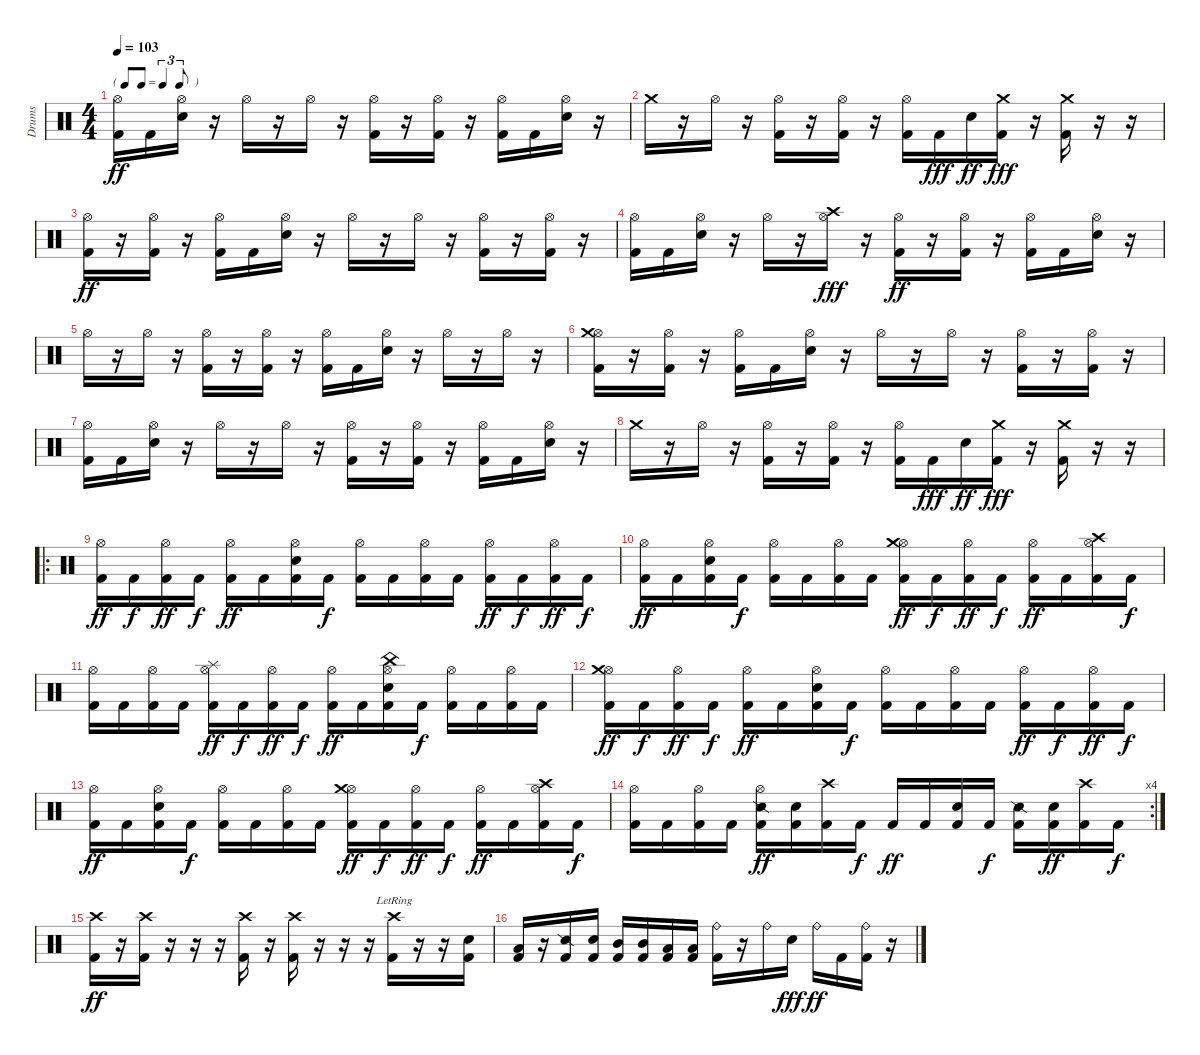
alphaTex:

\track ("Drums" "Drums") {instrument percussion}
\staff {score}
\articulation defaults
\ts (4 4)
\tf triplet8th
\tempo 103
\clef neutral
\ks c
("Hi-Hat (open)" "Kick (hit) 2").16{dy ff} "Kick (hit) 2".16 ("Hi-Hat (open)" "Electric Snare (hit)").16 r.16 "Hi-Hat (open)".16 r.16 "Hi-Hat (open)".16 r.16 ("Hi-Hat (open)" "Kick (hit) 2").16 r.16 ("Hi-Hat (open)" "Kick (hit) 2").16 r.16 ("Hi-Hat (open)" "Kick (hit) 2").16 "Kick (hit) 2".16 ("Hi-Hat (open)" "Electric Snare (hit)").16 r.16 |
"Crash medium (hit)".16 r.16 "Hi-Hat (open)".16 r.16 ("Hi-Hat (open)" "Kick (hit) 2").16 r.16 ("Hi-Hat (open)" "Kick (hit) 2").16 r.16 ("Hi-Hat (open)" "Kick (hit) 2").16 "Kick (hit) 2".16{dy fff} "Electric Snare (hit)".16{dy ff} ("Crash medium (hit)" "Kick (hit) 2").16{dy fff} r.16 ("Crash medium (hit)" "Kick (hit) 2").16 r.16 r.16 |
("Hi-Hat (open)" "Kick (hit) 2").16{dy ff} r.16 ("Hi-Hat (open)" "Kick (hit) 2").16 r.16 ("Hi-Hat (open)" "Kick (hit) 2").16 "Kick (hit) 2".16 ("Hi-Hat (open)" "Electric Snare (hit)").16 r.16 "Hi-Hat (open)".16 r.16 "Hi-Hat (open)".16 r.16 ("Hi-Hat (open)" "Kick (hit) 2").16 r.16 ("Hi-Hat (open)" "Kick (hit) 2").16 r.16 |
("Hi-Hat (open)" "Kick (hit) 2").16 "Kick (hit) 2".16 ("Hi-Hat (open)" "Electric Snare (hit)").16 r.16 "Hi-Hat (open)".16 r.16 ("Hi-Hat (open)" "Crash high (hit)").16{dy fff} r.16 ("Hi-Hat (open)" "Kick (hit) 2").16{dy ff} r.16 ("Hi-Hat (open)" "Kick (hit) 2").16 r.16 ("Hi-Hat (open)" "Kick (hit) 2").16 "Kick (hit) 2".16 ("Hi-Hat (open)" "Electric Snare (hit)").16 r.16 |
"Hi-Hat (open)".16 r.16 "Hi-Hat (open)".16 r.16 ("Hi-Hat (open)" "Kick (hit) 2").16 r.16 ("Hi-Hat (open)" "Kick (hit) 2").16 r.16 ("Hi-Hat (open)" "Kick (hit) 2").16 "Kick (hit) 2".16 ("Hi-Hat (open)" "Electric Snare (hit)").16 r.16 "Hi-Hat (open)".16 r.16 "Hi-Hat (open)".16 r.16 |
("Hi-Hat (open)" "Crash medium (hit)" "Kick (hit) 2").16 r.16 ("Hi-Hat (open)" "Kick (hit) 2").16 r.16 ("Hi-Hat (open)" "Kick (hit) 2").16 "Kick (hit) 2".16 ("Hi-Hat (open)" "Electric Snare (hit)").16 r.16 "Hi-Hat (open)".16 r.16 "Hi-Hat (open)".16 r.16 ("Hi-Hat (open)" "Kick (hit) 2").16 r.16 ("Hi-Hat (open)" "Kick (hit) 2").16 r.16 |
("Hi-Hat (open)" "Kick (hit) 2").16 "Kick (hit) 2".16 ("Hi-Hat (open)" "Electric Snare (hit)").16 r.16 "Hi-Hat (open)".16 r.16 "Hi-Hat (open)".16 r.16 ("Hi-Hat (open)" "Kick (hit) 2").16 r.16 ("Hi-Hat (open)" "Kick (hit) 2").16 r.16 ("Hi-Hat (open)" "Kick (hit) 2").16 "Kick (hit) 2".16 ("Hi-Hat (open)" "Electric Snare (hit)").16 r.16 |
"Crash medium (hit)".16 r.16 "Hi-Hat (open)".16 r.16 ("Hi-Hat (open)" "Kick (hit) 2").16 r.16 ("Hi-Hat (open)" "Kick (hit) 2").16 r.16 ("Hi-Hat (open)" "Kick (hit) 2").16 "Kick (hit) 2".16{dy fff} "Electric Snare (hit)".16{dy ff} ("Crash medium (hit)" "Kick (hit) 2").16{dy fff} r.16 ("Crash medium (hit)" "Kick (hit) 2").16 r.16 r.16 |
\ro
("Hi-Hat (open)" "Kick (hit) 2").16{dy ff} "Kick (hit) 2".16{dy f} ("Hi-Hat (open)" "Kick (hit) 2").16{dy ff} "Kick (hit) 2".16{dy f} ("Hi-Hat (open)" "Kick (hit) 2").16{dy ff} "Kick (hit) 2".16 ("Hi-Hat (open)" "Electric Snare (hit)" "Kick (hit) 2").16 "Kick (hit) 2".16{dy f} ("Hi-Hat (open)" "Kick (hit) 2").16 "Kick (hit) 2".16 ("Hi-Hat (open)" "Kick (hit) 2").16 "Kick (hit) 2".16 ("Hi-Hat (open)" "Kick (hit) 2").16{dy ff} "Kick (hit) 2".16{dy f} ("Hi-Hat (open)" "Kick (hit) 2").16{dy ff} "Kick (hit) 2".16{dy f} |
("Hi-Hat (open)" "Kick (hit) 2").16{dy ff} "Kick (hit) 2".16 ("Hi-Hat (open)" "Electric Snare (hit)" "Kick (hit) 2").16 "Kick (hit) 2".16{dy f} ("Hi-Hat (open)" "Kick (hit) 2").16 "Kick (hit) 2".16 ("Hi-Hat (open)" "Kick (hit) 2").16 "Kick (hit) 2".16 ("Hi-Hat (open)" "Crash medium (hit)" "Kick (hit) 2").16{dy ff} "Kick (hit) 2".16{dy f} ("Hi-Hat (open)" "Kick (hit) 2").16{dy ff} "Kick (hit) 2".16{dy f} ("Hi-Hat (open)" "Kick (hit) 2").16{dy ff} "Kick (hit) 2".16 ("Hi-Hat (open)" "Crash high (hit)" "Kick (hit) 2").16 "Kick (hit) 2".16{dy f} |
("Hi-Hat (open)" "Kick (hit) 2").16 "Kick (hit) 2".16 ("Hi-Hat (open)" "Kick (hit) 2").16 "Kick (hit) 2".16 ("Hi-Hat (open)" "Splash (hit)" "Kick (hit) 2").16{dy ff} "Kick (hit) 2".16{dy f} ("Hi-Hat (open)" "Kick (hit) 2").16{dy ff} "Kick (hit) 2".16{dy f} ("Hi-Hat (open)" "Kick (hit) 2").16{dy ff} "Kick (hit) 2".16 ("Hi-Hat (open)" "China (hit)" "Electric Snare (hit)" "Kick (hit) 2").16 "Kick (hit) 2".16{dy f} ("Hi-Hat (open)" "Kick (hit) 2").16 "Kick (hit) 2".16 ("Hi-Hat (open)" "Kick (hit) 2").16 "Kick (hit) 2".16 |
("Hi-Hat (open)" "Crash medium (hit)" "Kick (hit) 2").16{dy ff} "Kick (hit) 2".16{dy f} ("Hi-Hat (open)" "Kick (hit) 2").16{dy ff} "Kick (hit) 2".16{dy f} ("Hi-Hat (open)" "Kick (hit) 2").16{dy ff} "Kick (hit) 2".16 ("Hi-Hat (open)" "Electric Snare (hit)" "Kick (hit) 2").16 "Kick (hit) 2".16{dy f} ("Hi-Hat (open)" "Kick (hit) 2").16 "Kick (hit) 2".16 ("Hi-Hat (open)" "Kick (hit) 2").16 "Kick (hit) 2".16 ("Hi-Hat (open)" "Kick (hit) 2").16{dy ff} "Kick (hit) 2".16{dy f} ("Hi-Hat (open)" "Kick (hit) 2").16{dy ff} "Kick (hit) 2".16{dy f} |
("Hi-Hat (open)" "Kick (hit) 2").16{dy ff} "Kick (hit) 2".16 ("Hi-Hat (open)" "Electric Snare (hit)" "Kick (hit) 2").16 "Kick (hit) 2".16{dy f} ("Hi-Hat (open)" "Kick (hit) 2").16 "Kick (hit) 2".16 ("Hi-Hat (open)" "Kick (hit) 2").16 "Kick (hit) 2".16 ("Hi-Hat (open)" "Crash medium (hit)" "Kick (hit) 2").16{dy ff} "Kick (hit) 2".16{dy f} ("Hi-Hat (open)" "Kick (hit) 2").16{dy ff} "Kick (hit) 2".16{dy f} ("Hi-Hat (open)" "Kick (hit) 2").16{dy ff} "Kick (hit) 2".16 ("Hi-Hat (open)" "Crash high (hit)" "Kick (hit) 2").16 "Kick (hit) 2".16{dy f} |
\rc 4
("Hi-Hat (open)" "Kick (hit) 2").16 "Kick (hit) 2".16 ("Hi-Hat (open)" "Kick (hit) 2").16 "Kick (hit) 2".16 ("Hi-Hat (open)" "Snare (side stick) 2" "Kick (hit) 2").16{dy ff} ("Electric Snare (hit)" "Kick (hit) 2").16 ("Crash high (hit)" "Kick (hit) 2").16 "Kick (hit) 2".16{dy f} "Kick (hit) 2".16{dy ff} "Kick (hit) 2".16 ("Electric Snare (hit)" "Kick (hit) 2").16 "Kick (hit) 2".16{dy f} ("Snare (side stick) 2" "Kick (hit) 2").16 ("Electric Snare (hit)" "Kick (hit) 2").16{dy ff} ("Crash high (hit)" "Kick (hit) 2").16 "Kick (hit) 2".16{dy f} |
("Crash high (hit)" "Kick (hit) 2").16{dy ff} r.16 ("Crash high (hit)" "Kick (hit) 2").16 r.16 r.16 r.16 ("Crash high (hit)" "Kick (hit) 2").16 r.16 ("Crash high (hit)" "Kick (hit) 2").16 r.16 r.16 r.16 ("Crash high (hit)"{lr} "Kick (hit) 2").16 r.16 r.16 ("Electric Snare (hit)" "Kick (hit) 2").16 |
("Low Tom (hit)" "Kick (hit) 2").16 r.16 ("Snare (side stick) 2" "Kick (hit) 2").16 ("Electric Snare (hit)" "Kick (hit) 2").16 ("Mid Tom (hit)" "Kick (hit) 2").16 ("Mid Tom (hit)" "Kick (hit) 2").16 ("Low Tom (hit)" "Kick (hit) 2").16 ("Low Tom (hit)" "Kick (hit) 2").16 ("Ride (bell)" "Kick (hit) 2").16 r.16 "Ride (bell)".16 "Electric Snare (hit)".16{dy fff} "Ride (bell)".16{dy ff} "Kick (hit) 2".16 ("Ride (bell)" "Kick (hit) 2").16 r.16
